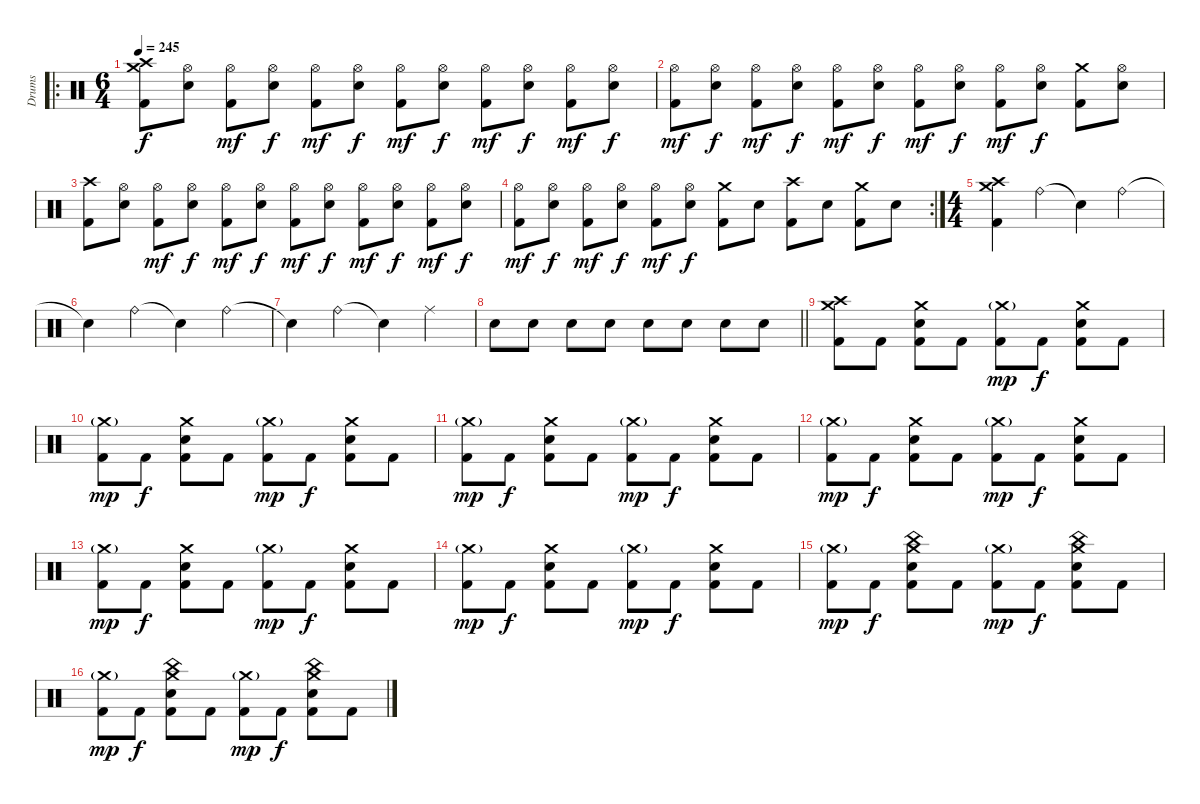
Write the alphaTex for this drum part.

\track ("Drums" "Drums") {instrument percussion}
\staff {score}
\articulation defaults
\ro
\ts (6 4)
\tempo 245
\clef neutral
\ks c
("Crash high (hit)" "Crash medium (hit)" "Kick (hit) 2").8{dy f} ("Hi-Hat (open)" "Electric Snare (hit)").8 ("Hi-Hat (open)" "Kick (hit) 2").8{dy mf} ("Hi-Hat (open)" "Electric Snare (hit)").8{dy f} ("Hi-Hat (open)" "Kick (hit) 2").8{dy mf} ("Hi-Hat (open)" "Electric Snare (hit)").8{dy f} ("Hi-Hat (open)" "Kick (hit) 2").8{dy mf} ("Hi-Hat (open)" "Electric Snare (hit)").8{dy f} ("Hi-Hat (open)" "Kick (hit) 2").8{dy mf} ("Hi-Hat (open)" "Electric Snare (hit)").8{dy f} ("Hi-Hat (open)" "Kick (hit) 2").8{dy mf} ("Hi-Hat (open)" "Electric Snare (hit)").8{dy f} |
("Hi-Hat (open)" "Kick (hit) 2").8{dy mf} ("Hi-Hat (open)" "Electric Snare (hit)").8{dy f} ("Hi-Hat (open)" "Kick (hit) 2").8{dy mf} ("Hi-Hat (open)" "Electric Snare (hit)").8{dy f} ("Hi-Hat (open)" "Kick (hit) 2").8{dy mf} ("Hi-Hat (open)" "Electric Snare (hit)").8{dy f} ("Hi-Hat (open)" "Kick (hit) 2").8{dy mf} ("Hi-Hat (open)" "Electric Snare (hit)").8{dy f} ("Hi-Hat (open)" "Kick (hit) 2").8{dy mf} ("Hi-Hat (open)" "Electric Snare (hit)").8{dy f} ("Crash medium (hit)" "Kick (hit) 2").8 ("Hi-Hat (open)" "Electric Snare (hit)").8 |
("Crash high (hit)" "Kick (hit) 2").8 ("Hi-Hat (open)" "Electric Snare (hit)").8 ("Hi-Hat (open)" "Kick (hit) 2").8{dy mf} ("Hi-Hat (open)" "Electric Snare (hit)").8{dy f} ("Hi-Hat (open)" "Kick (hit) 2").8{dy mf} ("Hi-Hat (open)" "Electric Snare (hit)").8{dy f} ("Hi-Hat (open)" "Kick (hit) 2").8{dy mf} ("Hi-Hat (open)" "Electric Snare (hit)").8{dy f} ("Hi-Hat (open)" "Kick (hit) 2").8{dy mf} ("Hi-Hat (open)" "Electric Snare (hit)").8{dy f} ("Hi-Hat (open)" "Kick (hit) 2").8{dy mf} ("Hi-Hat (open)" "Electric Snare (hit)").8{dy f} |
\rc 2
("Hi-Hat (open)" "Kick (hit) 2").8{dy mf} ("Hi-Hat (open)" "Electric Snare (hit)").8{dy f} ("Hi-Hat (open)" "Kick (hit) 2").8{dy mf} ("Hi-Hat (open)" "Electric Snare (hit)").8{dy f} ("Hi-Hat (open)" "Kick (hit) 2").8{dy mf} ("Hi-Hat (open)" "Electric Snare (hit)").8{dy f} ("Crash medium (hit)" "Kick (hit) 2").8 "Electric Snare (hit)".8 ("Crash high (hit)" "Kick (hit) 2").8 "Electric Snare (hit)".8 ("Crash medium (hit)" "Kick (hit) 2").8 "Electric Snare (hit)".8 |
\ts (4 4)
("Crash high (hit)" "Crash medium (hit)" "Kick (hit) 2").4 "Ride (bell)".4 "Snare (hit)"{t}.4 "Ride (bell)".4 |
"Snare (hit)"{t}.4 "Ride (bell)".4 "Snare (hit)"{t}.4 "Ride (bell)".4 |
"Snare (hit)"{t}.4 "Ride (bell)".4 "Snare (hit)"{t}.4 "Ride (middle)".4 |
\barLineRight lightlight "Electric Snare (hit)".8 "Electric Snare (hit)".8 "Electric Snare (hit)".8 "Electric Snare (hit)".8 "Electric Snare (hit)".8 "Electric Snare (hit)".8 "Electric Snare (hit)".8 "Electric Snare (hit)".8
|
("Crash medium (hit)" "Crash high (hit)" "Kick (hit) 2").8 "Kick (hit) 2".8 ("Crash medium (hit)" "Electric Snare (hit)" "Kick (hit) 2").8 "Kick (hit) 2".8 ("Crash medium (hit)"{g} "Kick (hit) 2").8{dy mp} "Kick (hit) 2".8{dy f} ("Crash medium (hit)" "Electric Snare (hit)" "Kick (hit) 2").8 "Kick (hit) 2".8 |
("Crash medium (hit)"{g} "Kick (hit) 2").8{dy mp} "Kick (hit) 2".8{dy f} ("Crash medium (hit)" "Electric Snare (hit)" "Kick (hit) 2").8 "Kick (hit) 2".8 ("Crash medium (hit)"{g} "Kick (hit) 2").8{dy mp} "Kick (hit) 2".8{dy f} ("Crash medium (hit)" "Electric Snare (hit)" "Kick (hit) 2").8 "Kick (hit) 2".8 |
("Crash medium (hit)"{g} "Kick (hit) 2").8{dy mp} "Kick (hit) 2".8{dy f} ("Crash medium (hit)" "Electric Snare (hit)" "Kick (hit) 2").8 "Kick (hit) 2".8 ("Crash medium (hit)"{g} "Kick (hit) 2").8{dy mp} "Kick (hit) 2".8{dy f} ("Crash medium (hit)" "Electric Snare (hit)" "Kick (hit) 2").8 "Kick (hit) 2".8 |
("Crash medium (hit)"{g} "Kick (hit) 2").8{dy mp} "Kick (hit) 2".8{dy f} ("Crash medium (hit)" "Electric Snare (hit)" "Kick (hit) 2").8 "Kick (hit) 2".8 ("Crash medium (hit)"{g} "Kick (hit) 2").8{dy mp} "Kick (hit) 2".8{dy f} ("Crash medium (hit)" "Electric Snare (hit)" "Kick (hit) 2").8 "Kick (hit) 2".8 |
("Crash medium (hit)"{g} "Kick (hit) 2").8{dy mp} "Kick (hit) 2".8{dy f} ("Crash medium (hit)" "Electric Snare (hit)" "Kick (hit) 2").8 "Kick (hit) 2".8 ("Crash medium (hit)"{g} "Kick (hit) 2").8{dy mp} "Kick (hit) 2".8{dy f} ("Crash medium (hit)" "Electric Snare (hit)" "Kick (hit) 2").8 "Kick (hit) 2".8 |
("Crash medium (hit)"{g} "Kick (hit) 2").8{dy mp} "Kick (hit) 2".8{dy f} ("Crash medium (hit)" "Electric Snare (hit)" "Kick (hit) 2").8 "Kick (hit) 2".8 ("Crash medium (hit)"{g} "Kick (hit) 2").8{dy mp} "Kick (hit) 2".8{dy f} ("Crash medium (hit)" "Electric Snare (hit)" "Kick (hit) 2").8 "Kick (hit) 2".8 |
("Crash medium (hit)"{g} "Kick (hit) 2").8{dy mp} "Kick (hit) 2".8{dy f} ("Crash medium (hit)" "China (hit)" "Electric Snare (hit)" "Kick (hit) 2").8 "Kick (hit) 2".8 ("Crash medium (hit)"{g} "Kick (hit) 2").8{dy mp} "Kick (hit) 2".8{dy f} ("Crash medium (hit)" "China (hit)" "Electric Snare (hit)" "Kick (hit) 2").8 "Kick (hit) 2".8 |
("Crash medium (hit)"{g} "Kick (hit) 2").8{dy mp} "Kick (hit) 2".8{dy f} ("Crash medium (hit)" "China (hit)" "Electric Snare (hit)" "Kick (hit) 2").8 "Kick (hit) 2".8 ("Crash medium (hit)"{g} "Kick (hit) 2").8{dy mp} "Kick (hit) 2".8{dy f} ("Crash medium (hit)" "China (hit)" "Electric Snare (hit)" "Kick (hit) 2").8 "Kick (hit) 2".8
